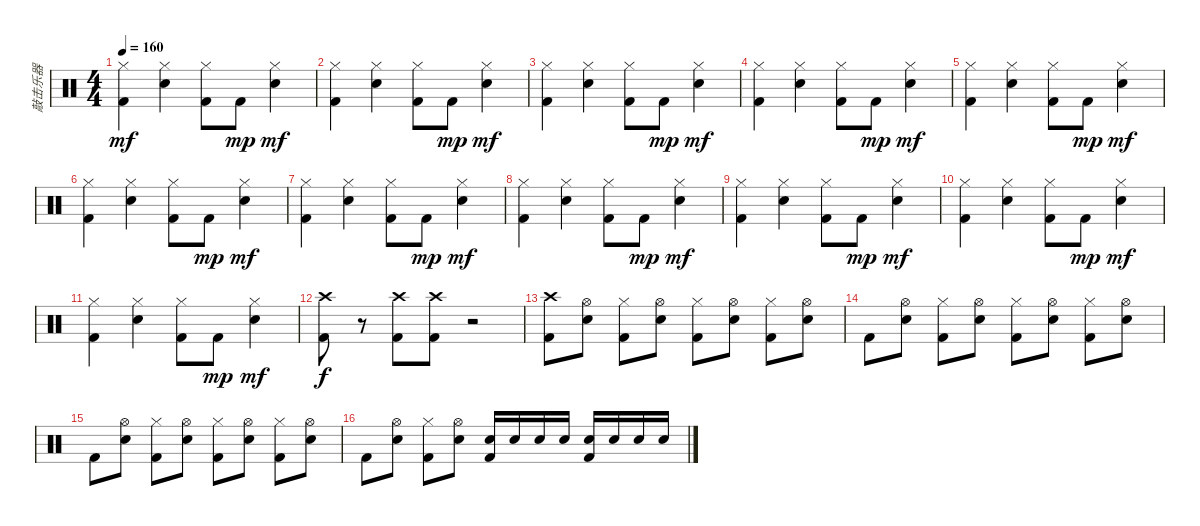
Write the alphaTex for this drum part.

\track ("敲击乐器" "敲击乐器") {instrument percussion}
\staff {score}
\articulation defaults
\ts (4 4)
\tempo 160
\clef neutral
\ks c
("Hi-Hat (closed)" "Kick (hit) 2").4{dy mf} ("Snare (hit) 2" "Hi-Hat (closed)").4 ("Hi-Hat (closed)" "Kick (hit) 2").8 "Kick (hit) 2".8{dy mp} ("Snare (hit) 2" "Hi-Hat (closed)").4{dy mf} |
("Hi-Hat (closed)" "Kick (hit) 2").4 ("Snare (hit) 2" "Hi-Hat (closed)").4 ("Hi-Hat (closed)" "Kick (hit) 2").8 "Kick (hit) 2".8{dy mp} ("Snare (hit) 2" "Hi-Hat (closed)").4{dy mf} |
("Hi-Hat (closed)" "Kick (hit) 2").4 ("Snare (hit) 2" "Hi-Hat (closed)").4 ("Hi-Hat (closed)" "Kick (hit) 2").8 "Kick (hit) 2".8{dy mp} ("Snare (hit) 2" "Hi-Hat (closed)").4{dy mf} |
("Hi-Hat (closed)" "Kick (hit) 2").4 ("Snare (hit) 2" "Hi-Hat (closed)").4 ("Hi-Hat (closed)" "Kick (hit) 2").8 "Kick (hit) 2".8{dy mp} ("Snare (hit) 2" "Hi-Hat (closed)").4{dy mf} |
("Hi-Hat (closed)" "Kick (hit) 2").4 ("Snare (hit) 2" "Hi-Hat (closed)").4 ("Hi-Hat (closed)" "Kick (hit) 2").8 "Kick (hit) 2".8{dy mp} ("Snare (hit) 2" "Hi-Hat (closed)").4{dy mf} |
("Hi-Hat (closed)" "Kick (hit) 2").4 ("Snare (hit) 2" "Hi-Hat (closed)").4 ("Hi-Hat (closed)" "Kick (hit) 2").8 "Kick (hit) 2".8{dy mp} ("Snare (hit) 2" "Hi-Hat (closed)").4{dy mf} |
("Hi-Hat (closed)" "Kick (hit) 2").4 ("Snare (hit) 2" "Hi-Hat (closed)").4 ("Hi-Hat (closed)" "Kick (hit) 2").8 "Kick (hit) 2".8{dy mp} ("Snare (hit) 2" "Hi-Hat (closed)").4{dy mf} |
("Hi-Hat (closed)" "Kick (hit) 2").4 ("Snare (hit) 2" "Hi-Hat (closed)").4 ("Hi-Hat (closed)" "Kick (hit) 2").8 "Kick (hit) 2".8{dy mp} ("Snare (hit) 2" "Hi-Hat (closed)").4{dy mf} |
("Hi-Hat (closed)" "Kick (hit) 2").4 ("Snare (hit) 2" "Hi-Hat (closed)").4 ("Hi-Hat (closed)" "Kick (hit) 2").8 "Kick (hit) 2".8{dy mp} ("Snare (hit) 2" "Hi-Hat (closed)").4{dy mf} |
("Hi-Hat (closed)" "Kick (hit) 2").4 ("Snare (hit) 2" "Hi-Hat (closed)").4 ("Hi-Hat (closed)" "Kick (hit) 2").8 "Kick (hit) 2".8{dy mp} ("Snare (hit) 2" "Hi-Hat (closed)").4{dy mf} |
("Hi-Hat (closed)" "Kick (hit) 2").4 ("Snare (hit) 2" "Hi-Hat (closed)").4 ("Hi-Hat (closed)" "Kick (hit) 2").8 "Kick (hit) 2".8{dy mp} ("Snare (hit) 2" "Hi-Hat (closed)").4{dy mf} |
("Crash high (hit)" "Kick (hit) 2").8{dy f} r.8 ("Crash high (hit)" "Kick (hit) 2").8 ("Crash high (hit)" "Kick (hit) 2").8 r.2 |
("Crash high (hit)" "Kick (hit) 2").8 ("Hi-Hat (open)" "Electric Snare (hit)").8 ("Hi-Hat (closed)" "Kick (hit) 2").8 ("Hi-Hat (open)" "Electric Snare (hit)").8 ("Hi-Hat (closed)" "Kick (hit) 2").8 ("Hi-Hat (open)" "Electric Snare (hit)").8 ("Hi-Hat (closed)" "Kick (hit) 2").8 ("Hi-Hat (open)" "Electric Snare (hit)").8 |
"Kick (hit) 2".8 ("Hi-Hat (open)" "Electric Snare (hit)").8 ("Hi-Hat (closed)" "Kick (hit) 2").8 ("Hi-Hat (open)" "Electric Snare (hit)").8 ("Hi-Hat (closed)" "Kick (hit) 2").8 ("Hi-Hat (open)" "Electric Snare (hit)").8 ("Hi-Hat (closed)" "Kick (hit) 2").8 ("Hi-Hat (open)" "Electric Snare (hit)").8 |
"Kick (hit) 2".8 ("Hi-Hat (open)" "Electric Snare (hit)").8 ("Hi-Hat (closed)" "Kick (hit) 2").8 ("Hi-Hat (open)" "Electric Snare (hit)").8 ("Hi-Hat (closed)" "Kick (hit) 2").8 ("Hi-Hat (open)" "Electric Snare (hit)").8 ("Hi-Hat (closed)" "Kick (hit) 2").8 ("Hi-Hat (open)" "Electric Snare (hit)").8 |
"Kick (hit) 2".8 ("Hi-Hat (open)" "Electric Snare (hit)").8 ("Hi-Hat (closed)" "Kick (hit) 2").8 ("Hi-Hat (open)" "Electric Snare (hit)").8 ("Electric Snare (hit)" "Kick (hit) 2").16 "Electric Snare (hit)".16 "Electric Snare (hit)".16 "Electric Snare (hit)".16 ("Electric Snare (hit)" "Kick (hit) 2").16 "Electric Snare (hit)".16 "Electric Snare (hit)".16 "Electric Snare (hit)".16
